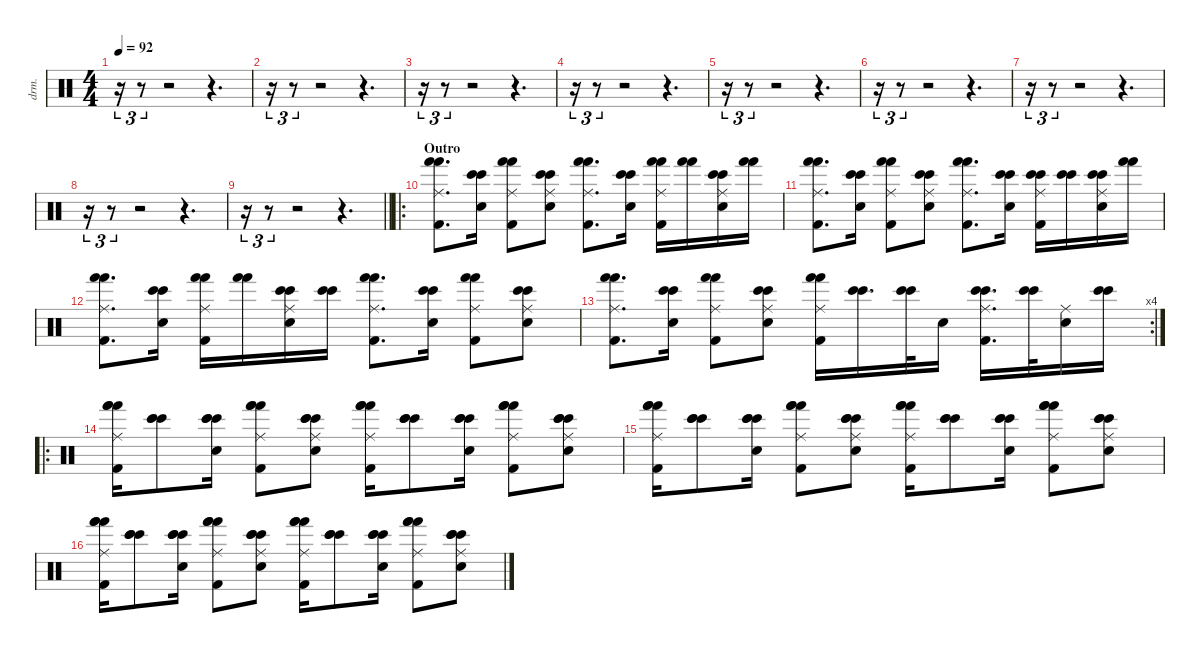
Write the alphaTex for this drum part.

\defaultSystemsLayout 4
\hideDynamics
\bracketExtendMode nobrackets
\otherSystemsTrackNameOrientation horizontal
\track ("Percussions" "drm.") {instrument percussion}
\staff {score}
\articulation defaults
\ts (4 4)
\tempo 92
\clef neutral
\ks c
r.16{tu (3 2) dy fff beam Down} r.8{tu (3 2) beam Down} r.2{beam Down} r.4{d beam Down} |
r.16{tu (3 2) beam Down} r.8{tu (3 2) beam Down} r.2{beam Down} r.4{d beam Down} |
r.16{tu (3 2) beam Down} r.8{tu (3 2) beam Down} r.2{beam Down} r.4{d beam Down} |
r.16{tu (3 2) beam Down} r.8{tu (3 2) beam Down} r.2{beam Down} r.4{d beam Down} |
r.16{tu (3 2) beam Down} r.8{tu (3 2) beam Down} r.2{beam Down} r.4{d beam Down} |
r.16{tu (3 2) beam Down} r.8{tu (3 2) beam Down} r.2{beam Down} r.4{d beam Down} |
r.16{tu (3 2) beam Down} r.8{tu (3 2) beam Down} r.2{beam Down} r.4{d beam Down} |
r.16{tu (3 2) beam Down} r.8{tu (3 2) beam Down} r.2{beam Down} r.4{d beam Down} |
\barLineRight lightlight
r.16{tu (3 2) beam Down} r.8{tu (3 2) beam Down} r.2{beam Down} r.4{d beam Down} |
\ro
\section ("" "Outro")
("Hand (hit)" "Hand (hit)" "Kick (hit) 2" "Ride (middle)").8{d beam Down} ("Bongo High (hit)" "Bongo High (hit)" "Snare (hit) 2").16{beam Down} ("Hand (hit)" "Hand (hit)" "Kick (hit) 2" "Ride (middle)").8{beam Down} ("Bongo High (hit)" "Bongo High (hit)" "Snare (hit) 2" "Ride (middle)").8{beam Down} ("Hand (hit)" "Hand (hit)" "Kick (hit) 2" "Ride (middle)").8{d beam Down} ("Bongo High (hit)" "Bongo High (hit)" "Snare (hit) 2").16{beam Down} ("Hand (hit)" "Hand (hit)" "Kick (hit) 2" "Ride (middle)").16{beam Down} ("Hand (hit)" "Hand (hit)").16{beam Down} ("Bongo High (hit)" "Bongo High (hit)" "Snare (hit) 2" "Ride (middle)").16{beam Down} ("Hand (hit)" "Hand (hit)").16{beam Down} |
("Hand (hit)" "Hand (hit)" "Kick (hit) 2" "Ride (middle)").8{d beam Down} ("Bongo High (hit)" "Bongo High (hit)" "Snare (hit) 2").16{beam Down} ("Hand (hit)" "Hand (hit)" "Kick (hit) 2" "Ride (middle)").8{beam Down} ("Bongo High (hit)" "Bongo High (hit)" "Snare (hit) 2" "Ride (middle)").8{beam Down} ("Hand (hit)" "Hand (hit)" "Kick (hit) 2" "Ride (middle)").8{d beam Down} ("Bongo High (hit)" "Bongo High (hit)" "Snare (hit) 2").16{beam Down} ("Bongo High (hit)" "Bongo High (hit)" "Kick (hit) 2" "Ride (middle)").16{beam Down} ("Bongo High (hit)" "Bongo High (hit)").16{beam Down} ("Bongo High (hit)" "Bongo High (hit)" "Snare (hit) 2" "Ride (middle)").16{beam Down} ("Hand (hit)" "Hand (hit)").16{beam Down} |
("Hand (hit)" "Hand (hit)" "Kick (hit) 2" "Ride (middle)").8{d beam Down} ("Bongo High (hit)" "Bongo High (hit)" "Snare (hit) 2").16{beam Down} ("Hand (hit)" "Hand (hit)" "Kick (hit) 2" "Ride (middle)").16{beam Down} ("Hand (hit)" "Hand (hit)").16{beam Down} ("Bongo High (hit)" "Bongo High (hit)" "Snare (hit) 2" "Ride (middle)").16{beam Down} ("Bongo High (hit)" "Bongo High (hit)").16{beam Down} ("Hand (hit)" "Hand (hit)" "Kick (hit) 2" "Ride (middle)").8{d beam Down} ("Bongo High (hit)" "Bongo High (hit)" "Snare (hit) 2").16{beam Down} ("Hand (hit)" "Hand (hit)" "Kick (hit) 2" "Ride (middle)").8{beam Down} ("Bongo High (hit)" "Bongo High (hit)" "Snare (hit) 2" "Ride (middle)").8{beam Down} |
\rc 4
("Hand (hit)" "Hand (hit)" "Kick (hit) 2" "Ride (middle)").8{d beam Down} ("Bongo High (hit)" "Bongo High (hit)" "Snare (hit) 2").16{beam Down} ("Hand (hit)" "Hand (hit)" "Kick (hit) 2" "Ride (middle)").8{beam Down} ("Bongo High (hit)" "Bongo High (hit)" "Snare (hit) 2" "Ride (middle)").8{beam Down} ("Hand (hit)" "Hand (hit)" "Kick (hit) 2" "Ride (middle)").16{beam Down} ("Bongo High (hit)" "Bongo High (hit)").16{d beam Down} ("Bongo High (hit)" "Bongo High (hit)").32{beam Down} "Snare (hit) 2".16{beam Down} ("Bongo High (hit)" "Bongo High (hit)" "Kick (hit) 2" "Ride (middle)").16{d beam Down} ("Bongo High (hit)" "Bongo High (hit)").32{beam Down} ("Snare (hit) 2" "Ride (middle)").16{beam Down} ("Bongo High (hit)" "Bongo High (hit)").16{beam Down} |
\ro
("Hand (hit)" "Hand (hit)" "Hand (hit)" "Kick (hit) 2" "Ride (middle)").16{beam Down} ("Bongo High (hit)" "Bongo High (hit)" "Bongo High (hit)").8{beam Down} ("Bongo High (hit)" "Bongo High (hit)" "Snare (hit) 2" "Bongo High (hit)").16{beam Down} ("Hand (hit)" "Hand (hit)" "Hand (hit)" "Kick (hit) 2" "Ride (middle)").8{beam Down} ("Bongo High (hit)" "Bongo High (hit)" "Snare (hit) 2" "Bongo High (hit)" "Ride (middle)").8{beam Down} ("Hand (hit)" "Hand (hit)" "Hand (hit)" "Kick (hit) 2" "Ride (middle)").16{beam Down} ("Bongo High (hit)" "Bongo High (hit)" "Bongo High (hit)").8{beam Down} ("Bongo High (hit)" "Bongo High (hit)" "Snare (hit) 2" "Bongo High (hit)").16{beam Down} ("Hand (hit)" "Hand (hit)" "Hand (hit)" "Kick (hit) 2" "Ride (middle)").8{beam Down} ("Bongo High (hit)" "Bongo High (hit)" "Snare (hit) 2" "Bongo High (hit)" "Ride (middle)").8{beam Down} |
("Hand (hit)" "Hand (hit)" "Hand (hit)" "Kick (hit) 2" "Ride (middle)").16{beam Down} ("Bongo High (hit)" "Bongo High (hit)" "Bongo High (hit)").8{beam Down} ("Bongo High (hit)" "Bongo High (hit)" "Snare (hit) 2" "Bongo High (hit)").16{beam Down} ("Hand (hit)" "Hand (hit)" "Hand (hit)" "Kick (hit) 2" "Ride (middle)").8{beam Down} ("Bongo High (hit)" "Bongo High (hit)" "Snare (hit) 2" "Bongo High (hit)" "Ride (middle)").8{beam Down} ("Hand (hit)" "Hand (hit)" "Hand (hit)" "Kick (hit) 2" "Ride (middle)").16{beam Down} ("Bongo High (hit)" "Bongo High (hit)" "Bongo High (hit)").8{beam Down} ("Bongo High (hit)" "Bongo High (hit)" "Snare (hit) 2" "Bongo High (hit)").16{beam Down} ("Hand (hit)" "Hand (hit)" "Hand (hit)" "Kick (hit) 2" "Ride (middle)").8{beam Down} ("Bongo High (hit)" "Bongo High (hit)" "Snare (hit) 2" "Bongo High (hit)" "Ride (middle)").8{beam Down} |
("Hand (hit)" "Hand (hit)" "Hand (hit)" "Kick (hit) 2" "Ride (middle)").16{beam Down} ("Bongo High (hit)" "Bongo High (hit)" "Bongo High (hit)").8{beam Down} ("Bongo High (hit)" "Bongo High (hit)" "Snare (hit) 2" "Bongo High (hit)").16{beam Down} ("Hand (hit)" "Hand (hit)" "Hand (hit)" "Kick (hit) 2" "Ride (middle)").8{beam Down} ("Bongo High (hit)" "Bongo High (hit)" "Snare (hit) 2" "Bongo High (hit)" "Ride (middle)").8{beam Down} ("Hand (hit)" "Hand (hit)" "Hand (hit)" "Kick (hit) 2" "Ride (middle)").16{beam Down} ("Bongo High (hit)" "Bongo High (hit)" "Bongo High (hit)").8{beam Down} ("Bongo High (hit)" "Bongo High (hit)" "Snare (hit) 2" "Bongo High (hit)").16{beam Down} ("Hand (hit)" "Hand (hit)" "Hand (hit)" "Kick (hit) 2" "Ride (middle)").8{beam Down} ("Bongo High (hit)" "Bongo High (hit)" "Snare (hit) 2" "Bongo High (hit)" "Ride (middle)").8{beam Down}
